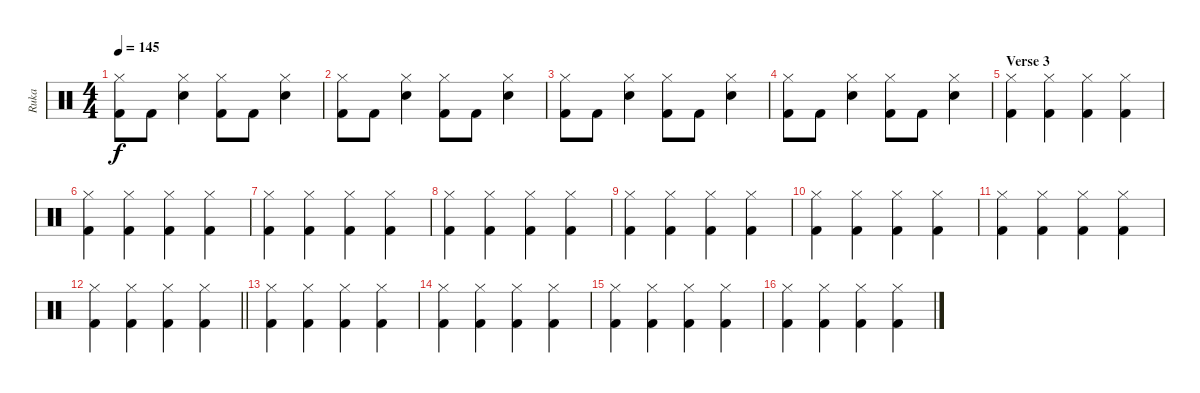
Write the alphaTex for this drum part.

\track ("Ruka" "Ruka") {instrument percussion}
\staff {score}
\articulation defaults
\ts (4 4)
\tempo 145
\clef neutral
\ks c
("Hi-Hat (closed)" "Kick (hit) 2").8{dy f} "Kick (hit) 2".8 ("Hi-Hat (closed)" "Electric Snare (hit)").4 ("Hi-Hat (closed)" "Kick (hit) 2").8 "Kick (hit) 2".8 ("Hi-Hat (closed)" "Electric Snare (hit)").4 |
("Hi-Hat (closed)" "Kick (hit) 2").8 "Kick (hit) 2".8 ("Hi-Hat (closed)" "Electric Snare (hit)").4 ("Hi-Hat (closed)" "Kick (hit) 2").8 "Kick (hit) 2".8 ("Hi-Hat (closed)" "Electric Snare (hit)").4 |
("Hi-Hat (closed)" "Kick (hit) 2").8 "Kick (hit) 2".8 ("Hi-Hat (closed)" "Electric Snare (hit)").4 ("Hi-Hat (closed)" "Kick (hit) 2").8 "Kick (hit) 2".8 ("Hi-Hat (closed)" "Electric Snare (hit)").4 |
("Hi-Hat (closed)" "Kick (hit) 2").8 "Kick (hit) 2".8 ("Hi-Hat (closed)" "Electric Snare (hit)").4 ("Hi-Hat (closed)" "Kick (hit) 2").8 "Kick (hit) 2".8 ("Hi-Hat (closed)" "Electric Snare (hit)").4 |
\section ("" "Verse 3")
("Hi-Hat (closed)" "Kick (hit) 2").4 ("Hi-Hat (closed)" "Kick (hit) 2").4 ("Hi-Hat (closed)" "Kick (hit) 2").4 ("Hi-Hat (closed)" "Kick (hit) 2").4 |
("Hi-Hat (closed)" "Kick (hit) 2").4 ("Hi-Hat (closed)" "Kick (hit) 2").4 ("Hi-Hat (closed)" "Kick (hit) 2").4 ("Hi-Hat (closed)" "Kick (hit) 2").4 |
("Hi-Hat (closed)" "Kick (hit) 2").4 ("Hi-Hat (closed)" "Kick (hit) 2").4 ("Hi-Hat (closed)" "Kick (hit) 2").4 ("Hi-Hat (closed)" "Kick (hit) 2").4 |
("Hi-Hat (closed)" "Kick (hit) 2").4 ("Hi-Hat (closed)" "Kick (hit) 2").4 ("Hi-Hat (closed)" "Kick (hit) 2").4 ("Hi-Hat (closed)" "Kick (hit) 2").4 |
("Hi-Hat (closed)" "Kick (hit) 2").4 ("Hi-Hat (closed)" "Kick (hit) 2").4 ("Hi-Hat (closed)" "Kick (hit) 2").4 ("Hi-Hat (closed)" "Kick (hit) 2").4 |
("Hi-Hat (closed)" "Kick (hit) 2").4 ("Hi-Hat (closed)" "Kick (hit) 2").4 ("Hi-Hat (closed)" "Kick (hit) 2").4 ("Hi-Hat (closed)" "Kick (hit) 2").4 |
("Hi-Hat (closed)" "Kick (hit) 2").4 ("Hi-Hat (closed)" "Kick (hit) 2").4 ("Hi-Hat (closed)" "Kick (hit) 2").4 ("Hi-Hat (closed)" "Kick (hit) 2").4 |
\barLineRight lightlight
("Hi-Hat (closed)" "Kick (hit) 2").4 ("Hi-Hat (closed)" "Kick (hit) 2").4 ("Hi-Hat (closed)" "Kick (hit) 2").4 ("Hi-Hat (closed)" "Kick (hit) 2").4 |
("Hi-Hat (closed)" "Kick (hit) 2").4 ("Hi-Hat (closed)" "Kick (hit) 2").4 ("Hi-Hat (closed)" "Kick (hit) 2").4 ("Hi-Hat (closed)" "Kick (hit) 2").4 |
("Hi-Hat (closed)" "Kick (hit) 2").4 ("Hi-Hat (closed)" "Kick (hit) 2").4 ("Hi-Hat (closed)" "Kick (hit) 2").4 ("Hi-Hat (closed)" "Kick (hit) 2").4 |
("Hi-Hat (closed)" "Kick (hit) 2").4 ("Hi-Hat (closed)" "Kick (hit) 2").4 ("Hi-Hat (closed)" "Kick (hit) 2").4 ("Hi-Hat (closed)" "Kick (hit) 2").4 |
("Hi-Hat (closed)" "Kick (hit) 2").4 ("Hi-Hat (closed)" "Kick (hit) 2").4 ("Hi-Hat (closed)" "Kick (hit) 2").4 ("Hi-Hat (closed)" "Kick (hit) 2").4
